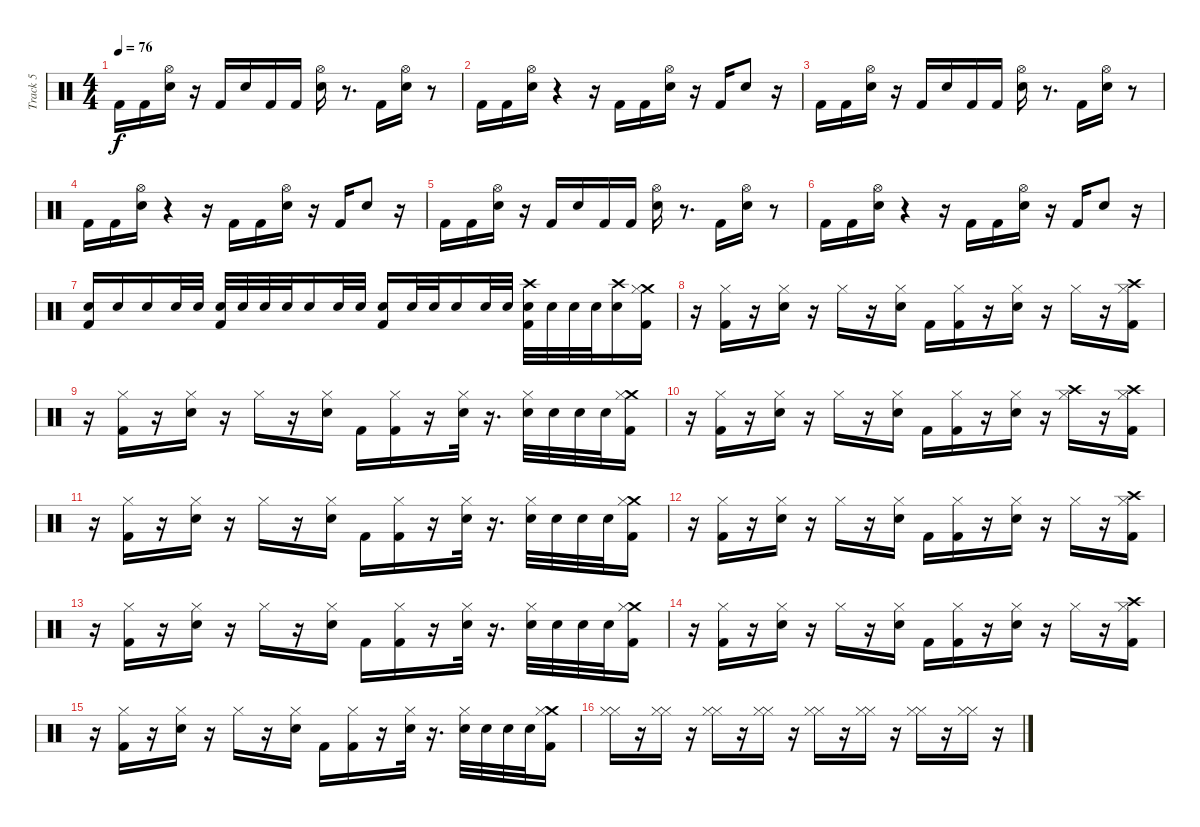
\track ("Track 5" "Track 5") {instrument percussion}
\staff {score}
\articulation defaults
\ts (4 4)
\tempo 76
\clef neutral
\ks c "Kick (hit) 2".16{dy f} "Kick (hit) 2".16
("Electric Snare (hit)" "Hi-Hat (open)").16 r.16 "Kick (hit) 2".16 "Electric Snare (hit)".16 "Kick (hit) 2".16 "Kick (hit) 2".16 ("Hi-Hat (open)" "Electric Snare (hit)").16 r.8{d} "Kick (hit) 2".16 ("Hi-Hat (open)" "Electric Snare (hit)").16 r.8 |
"Kick (hit) 2".16 "Kick (hit) 2".16 ("Hi-Hat (open)" "Electric Snare (hit)").16 r.4 r.16 "Kick (hit) 2".16 "Kick (hit) 2".16 ("Electric Snare (hit)" "Hi-Hat (open)").16 r.16 "Kick (hit) 2".16 "Electric Snare (hit)".8 r.16 |
"Kick (hit) 2".16 "Kick (hit) 2".16 ("Electric Snare (hit)" "Hi-Hat (open)").16 r.16 "Kick (hit) 2".16 "Electric Snare (hit)".16 "Kick (hit) 2".16 "Kick (hit) 2".16 ("Hi-Hat (open)" "Electric Snare (hit)").16 r.8{d} "Kick (hit) 2".16 ("Hi-Hat (open)" "Electric Snare (hit)").16 r.8 |
"Kick (hit) 2".16 "Kick (hit) 2".16 ("Hi-Hat (open)" "Electric Snare (hit)").16 r.4 r.16 "Kick (hit) 2".16 "Kick (hit) 2".16 ("Electric Snare (hit)" "Hi-Hat (open)").16 r.16 "Kick (hit) 2".16 "Electric Snare (hit)".8 r.16 |
"Kick (hit) 2".16 "Kick (hit) 2".16 ("Electric Snare (hit)" "Hi-Hat (open)").16 r.16 "Kick (hit) 2".16 "Electric Snare (hit)".16 "Kick (hit) 2".16 "Kick (hit) 2".16 ("Hi-Hat (open)" "Electric Snare (hit)").16 r.8{d} "Kick (hit) 2".16 ("Hi-Hat (open)" "Electric Snare (hit)").16 r.8 |
"Kick (hit) 2".16 "Kick (hit) 2".16 ("Hi-Hat (open)" "Electric Snare (hit)").16 r.4 r.16 "Kick (hit) 2".16 "Kick (hit) 2".16 ("Electric Snare (hit)" "Hi-Hat (open)").16 r.16 "Kick (hit) 2".16 "Electric Snare (hit)".8 r.16 |
("Electric Snare (hit)" "Kick (hit) 2").16 "Electric Snare (hit)".16 "Electric Snare (hit)".16 "Electric Snare (hit)".32 "Electric Snare (hit)".32 ("Kick (hit) 2" "Electric Snare (hit)").32 "Electric Snare (hit)".32 "Electric Snare (hit)".32 "Electric Snare (hit)".32 "Electric Snare (hit)".16 "Electric Snare (hit)".32 "Electric Snare (hit)".32 ("Kick (hit) 2" "Electric Snare (hit)").16 "Electric Snare (hit)".32 "Electric Snare (hit)".32 "Electric Snare (hit)".16 "Electric Snare (hit)".32 "Electric Snare (hit)".32 ("Crash high (hit)" "Kick (hit) 2" "Electric Snare (hit)").32 "Electric Snare (hit)".32 "Electric Snare (hit)".32 "Electric Snare (hit)".32 ("Electric Snare (hit)" "Crash high (hit)").16 ("Crash medium (hit)" "Hi-Hat (closed)" "Kick (hit) 2").16 |
r.16 ("Hi-Hat (closed)" "Kick (hit) 2").16 r.16 ("Hi-Hat (closed)" "Electric Snare (hit)").16 r.16 "Hi-Hat (closed)".16 r.16 ("Electric Snare (hit)" "Hi-Hat (closed)").16 "Kick (hit) 2".16 ("Kick (hit) 2" "Hi-Hat (closed)").16 r.16 ("Hi-Hat (closed)" "Electric Snare (hit)").16 r.16 "Hi-Hat (closed)".16 r.16 ("Crash high (hit)" "Kick (hit) 2" "Hi-Hat (closed)").16 |
r.16 ("Kick (hit) 2" "Hi-Hat (closed)").16 r.16 ("Electric Snare (hit)" "Hi-Hat (closed)").16 r.16 "Hi-Hat (closed)".16 r.16 ("Electric Snare (hit)" "Hi-Hat (closed)").16 "Kick (hit) 2".16 ("Kick (hit) 2" "Hi-Hat (closed)").16 r.16 ("Electric Snare (hit)" "Hi-Hat (closed)").32 r.16{d} ("Electric Snare (hit)" "Hi-Hat (closed)").32 "Electric Snare (hit)".32 "Electric Snare (hit)".32 "Electric Snare (hit)".32 ("Crash medium (hit)" "Kick (hit) 2" "Hi-Hat (closed)").16 |
r.16 ("Kick (hit) 2" "Hi-Hat (closed)").16 r.16 ("Electric Snare (hit)" "Hi-Hat (closed)").16 r.16 "Hi-Hat (closed)".16 r.16 ("Electric Snare (hit)" "Hi-Hat (closed)").16 "Kick (hit) 2".16 ("Kick (hit) 2" "Hi-Hat (closed)").16 r.16 ("Electric Snare (hit)" "Hi-Hat (closed)").16 r.16 ("Crash high (hit)" "Hi-Hat (closed)").16 r.16 ("Crash high (hit)" "Kick (hit) 2" "Hi-Hat (closed)").16 |
r.16 ("Kick (hit) 2" "Hi-Hat (closed)").16 r.16 ("Electric Snare (hit)" "Hi-Hat (closed)").16 r.16 "Hi-Hat (closed)".16 r.16 ("Electric Snare (hit)" "Hi-Hat (closed)").16 "Kick (hit) 2".16 ("Kick (hit) 2" "Hi-Hat (closed)").16 r.16 ("Electric Snare (hit)" "Hi-Hat (closed)").32 r.16{d} ("Electric Snare (hit)" "Hi-Hat (closed)").32 "Electric Snare (hit)".32 "Electric Snare (hit)".32 "Electric Snare (hit)".32 ("Crash medium (hit)" "Kick (hit) 2" "Hi-Hat (closed)").16 |
r.16 ("Hi-Hat (closed)" "Kick (hit) 2").16 r.16 ("Hi-Hat (closed)" "Electric Snare (hit)").16 r.16 "Hi-Hat (closed)".16 r.16 ("Electric Snare (hit)" "Hi-Hat (closed)").16 "Kick (hit) 2".16 ("Kick (hit) 2" "Hi-Hat (closed)").16 r.16 ("Hi-Hat (closed)" "Electric Snare (hit)").16 r.16 "Hi-Hat (closed)".16 r.16 ("Crash high (hit)" "Kick (hit) 2" "Hi-Hat (closed)").16 |
r.16 ("Kick (hit) 2" "Hi-Hat (closed)").16 r.16 ("Electric Snare (hit)" "Hi-Hat (closed)").16 r.16 "Hi-Hat (closed)".16 r.16 ("Electric Snare (hit)" "Hi-Hat (closed)").16 "Kick (hit) 2".16 ("Kick (hit) 2" "Hi-Hat (closed)").16 r.16 ("Electric Snare (hit)" "Hi-Hat (closed)").32 r.16{d} ("Electric Snare (hit)" "Hi-Hat (closed)").32 "Electric Snare (hit)".32 "Electric Snare (hit)".32 "Electric Snare (hit)".32 ("Crash medium (hit)" "Kick (hit) 2" "Hi-Hat (closed)").16 |
r.16 ("Hi-Hat (closed)" "Kick (hit) 2").16 r.16 ("Hi-Hat (closed)" "Electric Snare (hit)").16 r.16 "Hi-Hat (closed)".16 r.16 ("Electric Snare (hit)" "Hi-Hat (closed)").16 "Kick (hit) 2".16 ("Kick (hit) 2" "Hi-Hat (closed)").16 r.16 ("Hi-Hat (closed)" "Electric Snare (hit)").16 r.16 "Hi-Hat (closed)".16 r.16 ("Crash high (hit)" "Kick (hit) 2" "Hi-Hat (closed)").16 |
r.16 ("Kick (hit) 2" "Hi-Hat (closed)").16 r.16 ("Electric Snare (hit)" "Hi-Hat (closed)").16 r.16 "Hi-Hat (closed)".16 r.16 ("Electric Snare (hit)" "Hi-Hat (closed)").16 "Kick (hit) 2".16 ("Kick (hit) 2" "Hi-Hat (closed)").16 r.16 ("Electric Snare (hit)" "Hi-Hat (closed)").32 r.16{d} ("Electric Snare (hit)" "Hi-Hat (closed)").32 "Electric Snare (hit)".32 "Electric Snare (hit)".32 "Electric Snare (hit)".32 ("Crash medium (hit)" "Kick (hit) 2" "Hi-Hat (closed)").16 |
("Hi-Hat (closed)" "Hi-Hat (closed)").16 r.16 ("Hi-Hat (closed)" "Hi-Hat (closed)").16 r.16 ("Hi-Hat (closed)" "Hi-Hat (closed)").16 r.16 ("Hi-Hat (closed)" "Hi-Hat (closed)").16 r.16 ("Hi-Hat (closed)" "Hi-Hat (closed)").16 r.16 ("Hi-Hat (closed)" "Hi-Hat (closed)").16 r.16 ("Hi-Hat (closed)" "Hi-Hat (closed)").16 r.16 ("Hi-Hat (closed)" "Hi-Hat (closed)").16 r.16
